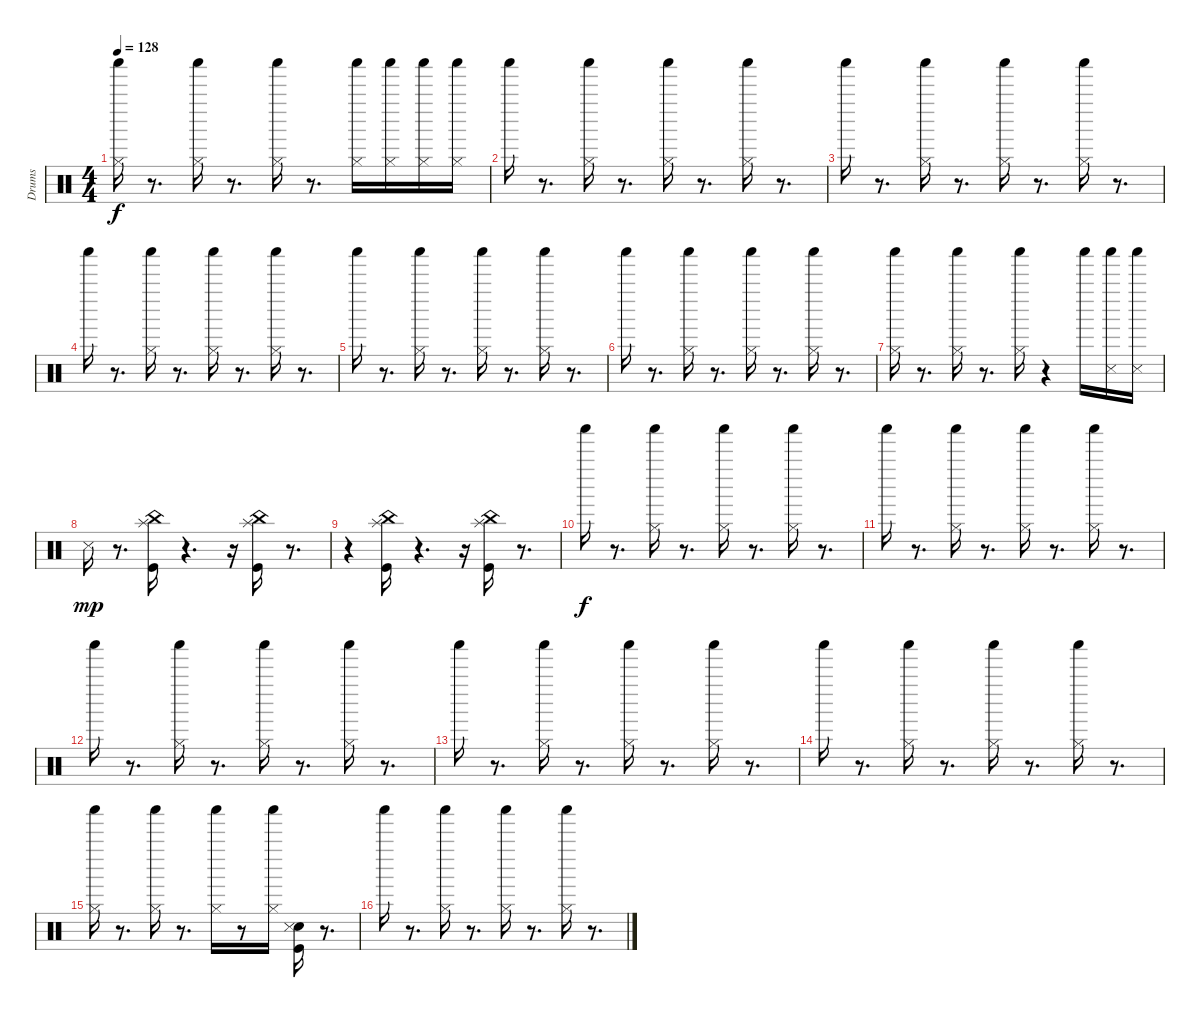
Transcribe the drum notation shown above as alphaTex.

\track ("Drums  " "Drums  ") {instrument percussion}
\staff {score}
\articulation defaults
\ts (4 4)
\tempo 128
\clef neutral
\ks c
("Shaker (hit)" "Hi-Hat (closed)").16{dy f} r.8{d} ("Shaker (hit)" "Hi-Hat (closed)").16 r.8{d} ("Shaker (hit)" "Hi-Hat (closed)").16 r.8{d} ("Shaker (hit)" "Hi-Hat (closed)").16 ("Shaker (hit)" "Hi-Hat (closed)").16 ("Shaker (hit)" "Hi-Hat (closed)").16 ("Shaker (hit)" "Hi-Hat (closed)").16 |
"Shaker (hit)".16 r.8{d} ("Shaker (hit)" "Hi-Hat (closed)").16 r.8{d} ("Shaker (hit)" "Hi-Hat (closed)").16 r.8{d} ("Shaker (hit)" "Hi-Hat (closed)").16 r.8{d} |
"Shaker (hit)".16 r.8{d} ("Shaker (hit)" "Hi-Hat (closed)").16 r.8{d} ("Shaker (hit)" "Hi-Hat (closed)").16 r.8{d} ("Shaker (hit)" "Hi-Hat (closed)").16 r.8{d} |
"Shaker (hit)".16 r.8{d} ("Shaker (hit)" "Hi-Hat (closed)").16 r.8{d} ("Shaker (hit)" "Hi-Hat (closed)").16 r.8{d} ("Shaker (hit)" "Hi-Hat (closed)").16 r.8{d} |
"Shaker (hit)".16 r.8{d} ("Shaker (hit)" "Hi-Hat (closed)").16 r.8{d} ("Shaker (hit)" "Hi-Hat (closed)").16 r.8{d} ("Shaker (hit)" "Hi-Hat (closed)").16 r.8{d} |
"Shaker (hit)".16 r.8{d} ("Shaker (hit)" "Hi-Hat (closed)").16 r.8{d} ("Shaker (hit)" "Hi-Hat (closed)").16 r.8{d} ("Shaker (hit)" "Hi-Hat (closed)").16 r.8{d} |
("Shaker (hit)" "Hi-Hat (closed)").16 r.8{d} ("Shaker (hit)" "Hi-Hat (closed)").16 r.8{d} ("Shaker (hit)" "Hi-Hat (closed)").16 r.4 "Shaker (hit)".16 ("Snare (side stick) 3" "Shaker (hit)").16 ("Snare (side stick) 3" "Shaker (hit)").16 |
"Snare (side stick) 3".16{dy mp} r.8{d} ("Splash (hit)" "Kick (hit)" "China (hit)").16 r.4{d} r.16 ("Splash (hit)" "Kick (hit)" "China (hit)").16 r.8{d} |
r.4 ("Splash (hit)" "Kick (hit)" "China (hit)").16 r.4{d} r.16 ("Splash (hit)" "Kick (hit)" "China (hit)").16 r.8{d} |
"Shaker (hit)".16{dy f} r.8{d} ("Shaker (hit)" "Hi-Hat (closed)").16 r.8{d} ("Shaker (hit)" "Hi-Hat (closed)").16 r.8{d} ("Shaker (hit)" "Hi-Hat (closed)").16 r.8{d} |
"Shaker (hit)".16 r.8{d} ("Shaker (hit)" "Hi-Hat (closed)").16 r.8{d} ("Shaker (hit)" "Hi-Hat (closed)").16 r.8{d} ("Shaker (hit)" "Hi-Hat (closed)").16 r.8{d} |
"Shaker (hit)".16 r.8{d} ("Shaker (hit)" "Hi-Hat (closed)").16 r.8{d} ("Shaker (hit)" "Hi-Hat (closed)").16 r.8{d} ("Shaker (hit)" "Hi-Hat (closed)").16 r.8{d} |
"Shaker (hit)".16 r.8{d} ("Shaker (hit)" "Hi-Hat (closed)").16 r.8{d} ("Shaker (hit)" "Hi-Hat (closed)").16 r.8{d} ("Shaker (hit)" "Hi-Hat (closed)").16 r.8{d} |
"Shaker (hit)".16 r.8{d} ("Shaker (hit)" "Hi-Hat (closed)").16 r.8{d} ("Shaker (hit)" "Hi-Hat (closed)").16 r.8{d} ("Shaker (hit)" "Hi-Hat (closed)").16 r.8{d} |
("Shaker (hit)" "Hi-Hat (closed)").16 r.8{d} ("Shaker (hit)" "Hi-Hat (closed)").16 r.8{d} ("Shaker (hit)" "Hi-Hat (closed)").16 r.8 ("Shaker (hit)" "Hi-Hat (closed)").16 ("Snare (hit) 2" "Snare (side stick) 3" "Kick (hit)").16 r.8{d} |
"Shaker (hit)".16 r.8{d} ("Shaker (hit)" "Hi-Hat (closed)").16 r.8{d} ("Shaker (hit)" "Hi-Hat (closed)").16 r.8{d} ("Shaker (hit)" "Hi-Hat (closed)").16 r.8{d}
